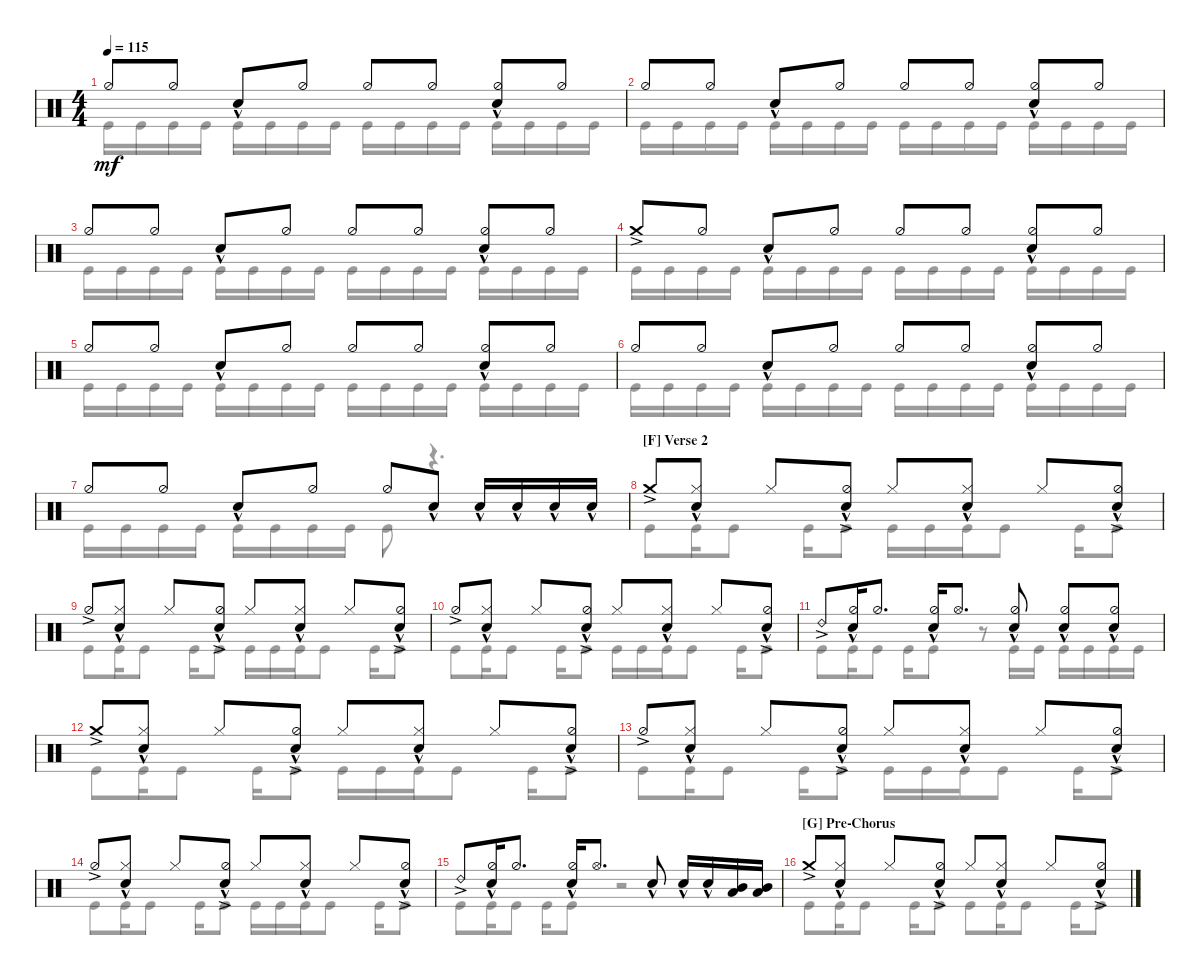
\defaultSystemsLayout 4
\bracketExtendMode groupsimilarinstruments
\singleTrackTrackNamePolicy hidden
\multiTrackTrackNamePolicy hidden
\firstSystemTrackNameOrientation horizontal
\otherSystemsTrackNameOrientation horizontal
\track ("Maksim Udalov" "Drums") {instrument percussion}
\staff {score}
\articulation defaults
\voice
\ts (4 4)
\tempo 115
\clef neutral
\scale
1.02648
\ks c "Hi-Hat (half)".8{dy mf} "Hi-Hat (half)".8 "Snare (hit) 2"{hac}.8 "Hi-Hat (half)".8 "Hi-Hat (half)".8 "Hi-Hat (half)".8
("Hi-Hat (half)" "Snare (hit) 2"{hac}).8 "Hi-Hat (half)".8 |
\scale
0.973518 "Hi-Hat (half)".8 "Hi-Hat (half)".8 "Snare (hit) 2"{hac}.8 "Hi-Hat (half)".8 "Hi-Hat (half)".8 "Hi-Hat (half)".8 ("Hi-Hat (half)" "Snare (hit) 2"{hac}).8 "Hi-Hat (half)".8 |
\scale
1.02648 "Hi-Hat (half)".8 "Hi-Hat (half)".8 "Snare (hit) 2"{hac}.8 "Hi-Hat (half)".8 "Hi-Hat (half)".8 "Hi-Hat (half)".8 ("Hi-Hat (half)" "Snare (hit) 2"{hac}).8 "Hi-Hat (half)".8 |
\scale
0.973518 "Crash medium (hit)"{ac}.8 "Hi-Hat (half)".8 "Snare (hit) 2"{hac}.8 "Hi-Hat (half)".8 "Hi-Hat (half)".8 "Hi-Hat (half)".8 ("Hi-Hat (half)" "Snare (hit) 2"{hac}).8 "Hi-Hat (half)".8 |
\scale
1.02648 "Hi-Hat (half)".8 "Hi-Hat (half)".8 "Snare (hit) 2"{hac}.8 "Hi-Hat (half)".8 "Hi-Hat (half)".8 "Hi-Hat (half)".8 ("Hi-Hat (half)" "Snare (hit) 2"{hac}).8 "Hi-Hat (half)".8 |
\scale
0.973518 "Hi-Hat (half)".8 "Hi-Hat (half)".8 "Snare (hit) 2"{hac}.8 "Hi-Hat (half)".8 "Hi-Hat (half)".8 "Hi-Hat (half)".8 ("Hi-Hat (half)" "Snare (hit) 2"{hac}).8 "Hi-Hat (half)".8 |
\scale
1.02648 "Hi-Hat (half)".8 "Hi-Hat (half)".8 "Snare (hit) 2"{hac}.8 "Hi-Hat (half)".8 "Hi-Hat (half)".8 "Snare (hit) 2"{hac}.8 "Snare (hit) 2"{hac}.16 "Snare (hit) 2"{hac}.16 "Snare (hit) 2"{hac}.16 "Snare (hit) 2"{hac}.16 |
\section ("F" "Verse 2")
\scale
0.973518 "Crash medium (hit)"{ac}.8 ("Hi-Hat (closed)" "Snare (hit) 2"{hac}).8 "Hi-Hat (closed)".8 ("Snare (hit) 2"{hac} "Hi-Hat (half)"{ac}).8 "Hi-Hat (closed)".8 ("Hi-Hat (closed)" "Snare (hit) 2"{hac}).8 "Hi-Hat (closed)".8 ("Snare (hit) 2"{hac} "Hi-Hat (half)"{ac}).8 |
\scale
1.02648 "Hi-Hat (half)"{ac}.8 ("Snare (hit) 2"{hac} "Hi-Hat (closed)").8 "Hi-Hat (closed)".8 ("Snare (hit) 2"{hac} "Hi-Hat (half)"{ac}).8 "Hi-Hat (closed)".8 ("Hi-Hat (closed)" "Snare (hit) 2"{hac}).8 "Hi-Hat (closed)".8 ("Snare (hit) 2"{hac} "Hi-Hat (half)"{ac}).8 |
\scale
0.973518 "Hi-Hat (half)"{ac}.8 ("Snare (hit) 2"{hac} "Hi-Hat (closed)").8 "Hi-Hat (closed)".8 ("Snare (hit) 2"{hac} "Hi-Hat (half)"{ac}).8 "Hi-Hat (closed)".8 ("Hi-Hat (closed)" "Snare (hit) 2"{hac}).8 "Hi-Hat (closed)".8 ("Snare (hit) 2"{hac} "Hi-Hat (half)"{ac}).8 |
\scale
1.02648 "Ride (bell) 2"{ac}.8 ("Hi-Hat (half)" "Snare (hit) 2"{hac}).16 "Hi-Hat (half)".8{d} ("Hi-Hat (half)" "Snare (hit) 2"{hac}).16 "Hi-Hat (open)".8{d} ("Hi-Hat (half)" "Snare (hit) 2"{hac}).8 ("Snare (hit) 2"{hac} "Hi-Hat (half)").8 ("Snare (hit) 2"{hac} "Hi-Hat (half)").8 |
\scale
0.973518 "Crash medium (hit)"{ac}.8 ("Hi-Hat (closed)" "Snare (hit) 2"{hac}).8 "Hi-Hat (closed)".8 ("Snare (hit) 2"{hac} "Hi-Hat (half)"{ac}).8 "Hi-Hat (closed)".8 ("Hi-Hat (closed)" "Snare (hit) 2"{hac}).8 "Hi-Hat (closed)".8 ("Snare (hit) 2"{hac} "Hi-Hat (half)"{ac}).8 |
\scale
1.02648 "Hi-Hat (half)"{ac}.8 ("Snare (hit) 2"{hac} "Hi-Hat (closed)").8 "Hi-Hat (closed)".8 ("Snare (hit) 2"{hac} "Hi-Hat (half)"{ac}).8 "Hi-Hat (closed)".8 ("Hi-Hat (closed)" "Snare (hit) 2"{hac}).8 "Hi-Hat (closed)".8 ("Snare (hit) 2"{hac} "Hi-Hat (half)"{ac}).8 |
\scale
0.973518 "Hi-Hat (half)"{ac}.8 ("Snare (hit) 2"{hac} "Hi-Hat (closed)").8 "Hi-Hat (closed)".8 ("Snare (hit) 2"{hac} "Hi-Hat (half)"{ac}).8 "Hi-Hat (closed)".8 ("Hi-Hat (closed)" "Snare (hit) 2"{hac}).8 "Hi-Hat (closed)".8 ("Snare (hit) 2"{hac} "Hi-Hat (half)"{ac}).8 |
\scale
1.02648 "Ride (bell) 2"{ac}.8 ("Hi-Hat (half)" "Snare (hit) 2"{hac}).16 "Hi-Hat (half)".8{d} ("Hi-Hat (half)" "Snare (hit) 2"{hac}).16 "Hi-Hat (open)".8{d} "Snare (hit) 2"{hac}.8 "Snare (hit) 2"{hac}.16 "Snare (hit) 2"{hac}.16 ("Mid Tom (hit)" "Low Tom (hit)").16 ("Mid Tom (hit)" "Low Tom (hit)").16 |
\section ("G" "Pre-Chorus")
\scale
0.973518 "Crash medium (hit)"{ac}.8 ("Hi-Hat (closed)" "Snare (hit) 2"{hac}).8 "Hi-Hat (closed)".8 ("Snare (hit) 2"{hac} "Hi-Hat (half)"{ac}).8 "Hi-Hat (closed)".8 ("Hi-Hat (closed)" "Snare (hit) 2"{hac}).8 "Hi-Hat (closed)".8 ("Snare (hit) 2"{hac} "Hi-Hat (half)"{ac}).8
\voice
\clef neutral
\ottava regular
\simile none
\scale
1.02648
\ks c "Kick (hit)".16{dy mf} "Kick (hit)".16 "Kick (hit)".16 "Kick (hit)".16 "Kick (hit)".16 "Kick (hit)".16 "Kick (hit)".16 "Kick (hit)".16 "Kick (hit)".16 "Kick (hit)".16 "Kick (hit)".16 "Kick (hit)".16 "Kick (hit)".16 "Kick (hit)".16 "Kick (hit)".16 "Kick (hit)".16
|
\scale
0.973518 "Kick (hit)".16 "Kick (hit)".16 "Kick (hit)".16 "Kick (hit)".16 "Kick (hit)".16 "Kick (hit)".16 "Kick (hit)".16 "Kick (hit)".16 "Kick (hit)".16 "Kick (hit)".16 "Kick (hit)".16 "Kick (hit)".16 "Kick (hit)".16 "Kick (hit)".16 "Kick (hit)".16 "Kick (hit)".16 |
\scale
1.02648 "Kick (hit)".16 "Kick (hit)".16 "Kick (hit)".16 "Kick (hit)".16 "Kick (hit)".16 "Kick (hit)".16 "Kick (hit)".16 "Kick (hit)".16 "Kick (hit)".16 "Kick (hit)".16 "Kick (hit)".16 "Kick (hit)".16 "Kick (hit)".16 "Kick (hit)".16 "Kick (hit)".16 "Kick (hit)".16 |
\scale
0.973518 "Kick (hit)".16 "Kick (hit)".16 "Kick (hit)".16 "Kick (hit)".16 "Kick (hit)".16 "Kick (hit)".16 "Kick (hit)".16 "Kick (hit)".16 "Kick (hit)".16 "Kick (hit)".16 "Kick (hit)".16 "Kick (hit)".16 "Kick (hit)".16 "Kick (hit)".16 "Kick (hit)".16 "Kick (hit)".16 |
\scale
1.02648 "Kick (hit)".16 "Kick (hit)".16 "Kick (hit)".16 "Kick (hit)".16 "Kick (hit)".16 "Kick (hit)".16 "Kick (hit)".16 "Kick (hit)".16 "Kick (hit)".16 "Kick (hit)".16 "Kick (hit)".16 "Kick (hit)".16 "Kick (hit)".16 "Kick (hit)".16 "Kick (hit)".16 "Kick (hit)".16 |
\scale
0.973518 "Kick (hit)".16 "Kick (hit)".16 "Kick (hit)".16 "Kick (hit)".16 "Kick (hit)".16 "Kick (hit)".16 "Kick (hit)".16 "Kick (hit)".16 "Kick (hit)".16 "Kick (hit)".16 "Kick (hit)".16 "Kick (hit)".16 "Kick (hit)".16 "Kick (hit)".16 "Kick (hit)".16 "Kick (hit)".16 |
\scale
1.02648 "Kick (hit)".16 "Kick (hit)".16 "Kick (hit)".16 "Kick (hit)".16 "Kick (hit)".16 "Kick (hit)".16 "Kick (hit)".16 "Kick (hit)".16 "Kick (hit)".8 r.4{d} |
\scale
0.973518 "Kick (hit)".8 "Kick (hit)".16 "Kick (hit)".8 "Kick (hit)".16 "Kick (hit)".8 "Kick (hit)".16 "Kick (hit)".16 "Kick (hit)".16 "Kick (hit)".8 "Kick (hit)".16 "Kick (hit)".8 |
\scale
1.02648 "Kick (hit)".8 "Kick (hit)".16 "Kick (hit)".8 "Kick (hit)".16 "Kick (hit)".8 "Kick (hit)".16 "Kick (hit)".16 "Kick (hit)".16 "Kick (hit)".8 "Kick (hit)".16 "Kick (hit)".8 |
\scale
0.973518 "Kick (hit)".8 "Kick (hit)".16 "Kick (hit)".8 "Kick (hit)".16 "Kick (hit)".8 "Kick (hit)".16 "Kick (hit)".16 "Kick (hit)".16 "Kick (hit)".8 "Kick (hit)".16 "Kick (hit)".8 |
\scale
1.02648 "Kick (hit)".8 "Kick (hit)".16 "Kick (hit)".8 "Kick (hit)".16 "Kick (hit)".8 r.8 "Kick (hit)".16 "Kick (hit)".16 "Kick (hit)".16 "Kick (hit)".16 "Kick (hit)".16 "Kick (hit)".16 |
\scale
0.973518 "Kick (hit)".8 "Kick (hit)".16 "Kick (hit)".8 "Kick (hit)".16 "Kick (hit)".8 "Kick (hit)".16 "Kick (hit)".16 "Kick (hit)".16 "Kick (hit)".8 "Kick (hit)".16 "Kick (hit)".8 |
\scale
1.02648 "Kick (hit)".8 "Kick (hit)".16 "Kick (hit)".8 "Kick (hit)".16 "Kick (hit)".8 "Kick (hit)".16 "Kick (hit)".16 "Kick (hit)".16 "Kick (hit)".8 "Kick (hit)".16 "Kick (hit)".8 |
\scale
0.973518 "Kick (hit)".8 "Kick (hit)".16 "Kick (hit)".8 "Kick (hit)".16 "Kick (hit)".8 "Kick (hit)".16 "Kick (hit)".16 "Kick (hit)".16 "Kick (hit)".8 "Kick (hit)".16 "Kick (hit)".8 |
\scale
1.02648 "Kick (hit)".8 "Kick (hit)".16 "Kick (hit)".8 "Kick (hit)".16 "Kick (hit)".8 r.2 |
\scale
0.973518 "Kick (hit)".8 "Kick (hit)".16 "Kick (hit)".8 "Kick (hit)".16 "Kick (hit)".8 "Kick (hit)".8 "Kick (hit)".16 "Kick (hit)".8 "Kick (hit)".16 "Kick (hit)".8
